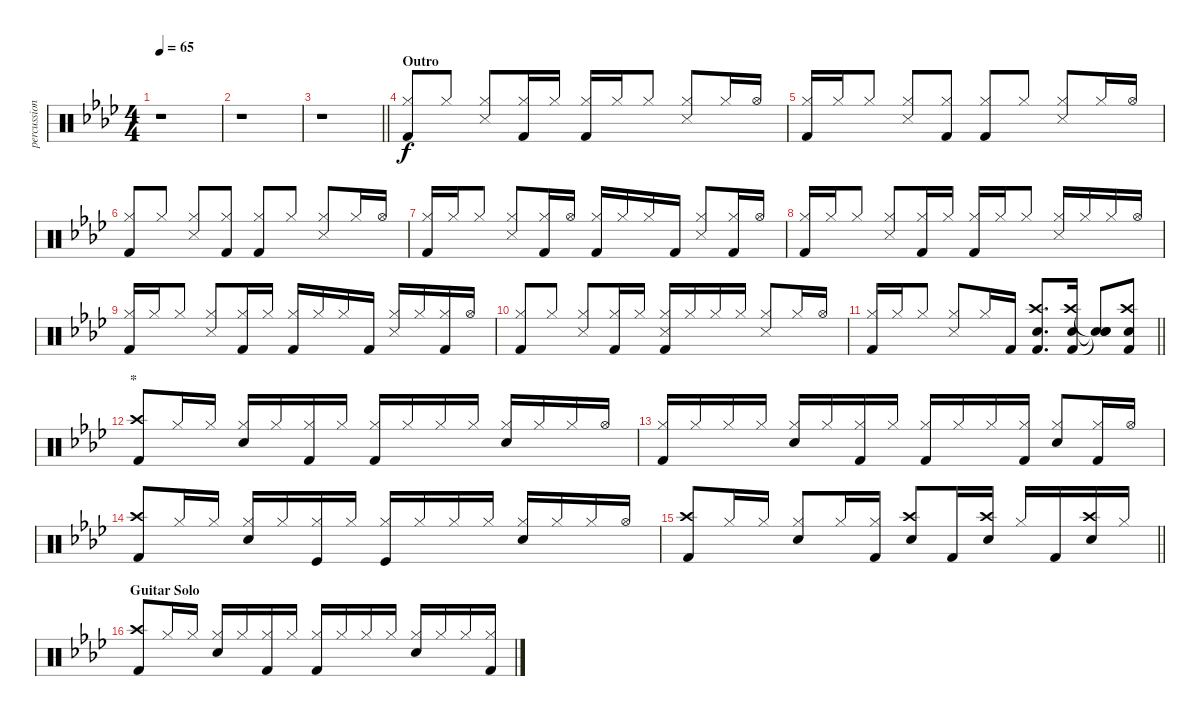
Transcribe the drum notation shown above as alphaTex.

\track ("percussion" "percussion") {instrument percussion}
\staff {score}
\articulation defaults
\ts (4 4)
\tempo 65
\clef neutral
\ks ab
r.1{dy fff} |
r.1 |
\barLineRight lightlight
r.1 |
\section ("" "Outro")
("Hi-Hat (closed)" "Kick (hit) 2").8{dy f beam Up} "Hi-Hat (closed)".8{beam Up} ("Snare (side stick) 3" "Hi-Hat (closed)").8{beam Up} ("Hi-Hat (closed)" "Kick (hit) 2").16{beam Up} "Hi-Hat (closed)".16{beam Up} ("Hi-Hat (closed)" "Kick (hit) 2").16{beam Up} "Hi-Hat (closed)".16{beam Up} "Hi-Hat (closed)".8{beam Up} ("Snare (side stick) 3" "Hi-Hat (closed)").8{beam Up} "Hi-Hat (closed)".16{beam Up} "Hi-Hat (open)".16{beam Up} |
("Hi-Hat (closed)" "Kick (hit) 2").16{beam Up} "Hi-Hat (closed)".16{beam Up} "Hi-Hat (closed)".8{beam Up} ("Snare (side stick) 3" "Hi-Hat (closed)").8{beam Up} ("Hi-Hat (closed)" "Kick (hit) 2").8{beam Up} ("Hi-Hat (closed)" "Kick (hit) 2").8{beam Up} "Hi-Hat (closed)".8{beam Up} ("Snare (side stick) 3" "Hi-Hat (closed)").8{beam Up} "Hi-Hat (closed)".16{beam Up} "Hi-Hat (open)".16{beam Up} |
("Hi-Hat (closed)" "Kick (hit) 2").8{beam Up} "Hi-Hat (closed)".8{beam Up} ("Snare (side stick) 3" "Hi-Hat (closed)").8{beam Up} ("Hi-Hat (closed)" "Kick (hit) 2").8{beam Up} ("Hi-Hat (closed)" "Kick (hit) 2").8{beam Up} "Hi-Hat (closed)".8{beam Up} ("Snare (side stick) 3" "Hi-Hat (closed)").8{beam Up} "Hi-Hat (closed)".16{beam Up} "Hi-Hat (open)".16{beam Up} |
("Hi-Hat (closed)" "Kick (hit) 2").16{beam Up} "Hi-Hat (closed)".16{beam Up} "Hi-Hat (closed)".8{beam Up} ("Snare (side stick) 3" "Hi-Hat (closed)").8{beam Up} ("Hi-Hat (closed)" "Kick (hit) 2").16{beam Up} "Hi-Hat (open)".16{beam Up} ("Hi-Hat (closed)" "Kick (hit) 2").16{beam Up} "Hi-Hat (closed)".16{beam Up} "Hi-Hat (closed)".16{beam Up} "Kick (hit) 2".16{beam Up} ("Snare (side stick) 3" "Hi-Hat (closed)").8{beam Up} ("Hi-Hat (closed)" "Kick (hit) 2").16{beam Up} "Hi-Hat (open)".16{beam Up} |
("Hi-Hat (closed)" "Kick (hit) 2").16{beam Up} "Hi-Hat (closed)".16{beam Up} "Hi-Hat (closed)".8{beam Up} ("Snare (side stick) 3" "Hi-Hat (closed)").8{beam Up} ("Hi-Hat (closed)" "Kick (hit) 2").16{beam Up} "Hi-Hat (closed)".16{beam Up} ("Hi-Hat (closed)" "Kick (hit) 2").16{beam Up} "Hi-Hat (closed)".16{beam Up} "Hi-Hat (closed)".8{beam Up} ("Snare (side stick) 3" "Hi-Hat (closed)").16{beam Up} "Hi-Hat (closed)".16{beam Up} "Hi-Hat (closed)".16{beam Up} "Hi-Hat (open)".16{beam Up} |
("Hi-Hat (closed)" "Kick (hit) 2").16{beam Up} "Hi-Hat (closed)".16{beam Up} "Hi-Hat (closed)".8{beam Up} ("Snare (side stick) 3" "Hi-Hat (closed)").8{beam Up} ("Hi-Hat (closed)" "Kick (hit) 2").16{beam Up} "Hi-Hat (closed)".16{beam Up} ("Hi-Hat (closed)" "Kick (hit) 2").16{beam Up} "Hi-Hat (closed)".16{beam Up} "Hi-Hat (closed)".16{beam Up} "Kick (hit) 2".16{beam Up} ("Snare (side stick) 3" "Hi-Hat (closed)").16{beam Up} "Hi-Hat (closed)".16{beam Up} ("Hi-Hat (closed)" "Kick (hit) 2").16{beam Up} "Hi-Hat (open)".16{beam Up} |
("Hi-Hat (closed)" "Kick (hit) 2").8{beam Up} "Hi-Hat (closed)".8{beam Up} ("Snare (side stick) 3" "Hi-Hat (closed)").8{beam Up} ("Hi-Hat (closed)" "Kick (hit) 2").16{beam Up} "Hi-Hat (closed)".16{beam Up} ("Snare (side stick) 3" "Hi-Hat (closed)" "Kick (hit) 2").16{beam Up} "Hi-Hat (closed)".16{beam Up} "Hi-Hat (closed)".16{beam Up} "Hi-Hat (closed)".16{beam Up} ("Snare (side stick) 3" "Hi-Hat (closed)").8{beam Up} "Hi-Hat (closed)".16{beam Up} "Hi-Hat (open)".16{beam Up} |
\barLineRight lightlight
("Hi-Hat (closed)" "Kick (hit) 2").16{beam Up} "Hi-Hat (closed)".16{beam Up} "Hi-Hat (closed)".8{beam Up} ("Snare (side stick) 3" "Hi-Hat (closed)").8{beam Up} "Hi-Hat (closed)".16{beam Up} "Kick (hit) 2".16{beam Up} ("Crash high (hit)" "Snare (hit) 2" "Kick (hit) 2").8{d beam Up} ("Crash high (hit)" "Snare (hit) 2" "Kick (hit) 2").16{beam Up} ("Snare (hit)"{t} "Snare (hit)"{t} "Snare (hit)"{t}).8{beam Up} ("Crash high (hit)" "Snare (hit) 2" "Kick (hit) 2").8{beam Up} |
\section ("" "*")
("Crash high (hit)" "Kick (hit) 2").8{beam Up} "Hi-Hat (closed)".16{beam Up} "Hi-Hat (closed)".16{beam Up} ("Snare (hit) 2" "Hi-Hat (closed)").16{beam Up} "Hi-Hat (closed)".16{beam Up} ("Hi-Hat (closed)" "Kick (hit) 2").16{beam Up} "Hi-Hat (closed)".16{beam Up} ("Hi-Hat (closed)" "Kick (hit) 2").16{beam Up} "Hi-Hat (closed)".16{beam Up} "Hi-Hat (closed)".16{beam Up} "Hi-Hat (closed)".16{beam Up} ("Snare (hit) 2" "Hi-Hat (closed)").16{beam Up} "Hi-Hat (closed)".16{beam Up} "Hi-Hat (closed)".16{beam Up} "Hi-Hat (open)".16{beam Up} |
("Hi-Hat (closed)" "Kick (hit) 2").16{beam Up} "Hi-Hat (closed)".16{beam Up} "Hi-Hat (closed)".16{beam Up} "Hi-Hat (closed)".16{beam Up} ("Snare (hit) 2" "Hi-Hat (closed)").16{beam Up} "Hi-Hat (closed)".16{beam Up} ("Hi-Hat (closed)" "Kick (hit) 2").16{beam Up} "Hi-Hat (closed)".16{beam Up} ("Hi-Hat (closed)" "Kick (hit) 2").16{beam Up} "Hi-Hat (closed)".16{beam Up} "Hi-Hat (closed)".16{beam Up} ("Hi-Hat (closed)" "Kick (hit) 2").16{beam Up} ("Snare (hit) 2" "Hi-Hat (closed)").8{beam Up} ("Hi-Hat (closed)" "Kick (hit) 2").16{beam Up} "Hi-Hat (open)".16{beam Up} |
("Crash high (hit)" "Kick (hit) 2").8{beam Up} "Hi-Hat (closed)".16{beam Up} "Hi-Hat (closed)".16{beam Up} ("Snare (hit) 2" "Hi-Hat (closed)").16{beam Up} "Hi-Hat (closed)".16{beam Up} ("Hi-Hat (closed)" "Kick (hit)").16{beam Up} "Hi-Hat (closed)".16{beam Up} ("Hi-Hat (closed)" "Kick (hit)").16{beam Up} "Hi-Hat (closed)".16{beam Up} "Hi-Hat (closed)".16{beam Up} "Hi-Hat (closed)".16{beam Up} ("Snare (hit) 2" "Hi-Hat (closed)").16{beam Up} "Hi-Hat (closed)".16{beam Up} "Hi-Hat (closed)".16{beam Up} "Hi-Hat (open)".16{beam Up} |
\barLineRight lightlight
("Crash high (hit)" "Kick (hit) 2").8{beam Up} "Hi-Hat (closed)".16{beam Up} "Hi-Hat (closed)".16{beam Up} ("Snare (hit) 2" "Hi-Hat (closed)").8{beam Up} "Hi-Hat (closed)".16{beam Up} ("Hi-Hat (closed)" "Kick (hit) 2").16{beam Up} ("Crash high (hit)" "Snare (hit) 2").8{beam Up} "Kick (hit) 2".16{beam Up} ("Crash high (hit)" "Snare (hit) 2").16{beam Up} "Hi-Hat (closed)".16{beam Up} "Kick (hit) 2".16{beam Up} ("Crash high (hit)" "Snare (hit) 2").16{beam Up} "Hi-Hat (closed)".16{beam Up} |
\section ("" "Guitar Solo")
("Crash high (hit)" "Kick (hit) 2").8{beam Up} "Hi-Hat (closed)".16{beam Up} "Hi-Hat (closed)".16{beam Up} ("Snare (hit) 2" "Hi-Hat (closed)").16{beam Up} "Hi-Hat (closed)".16{beam Up} ("Hi-Hat (closed)" "Kick (hit) 2").16{beam Up} "Hi-Hat (closed)".16{beam Up} ("Hi-Hat (closed)" "Kick (hit) 2").16{beam Up} "Hi-Hat (closed)".16{beam Up} "Hi-Hat (closed)".16{beam Up} "Hi-Hat (closed)".16{beam Up} ("Snare (hit) 2" "Hi-Hat (closed)").16{beam Up} "Hi-Hat (closed)".16{beam Up} "Hi-Hat (closed)".16{beam Up} ("Hi-Hat (closed)" "Kick (hit) 2").16{beam Up}
